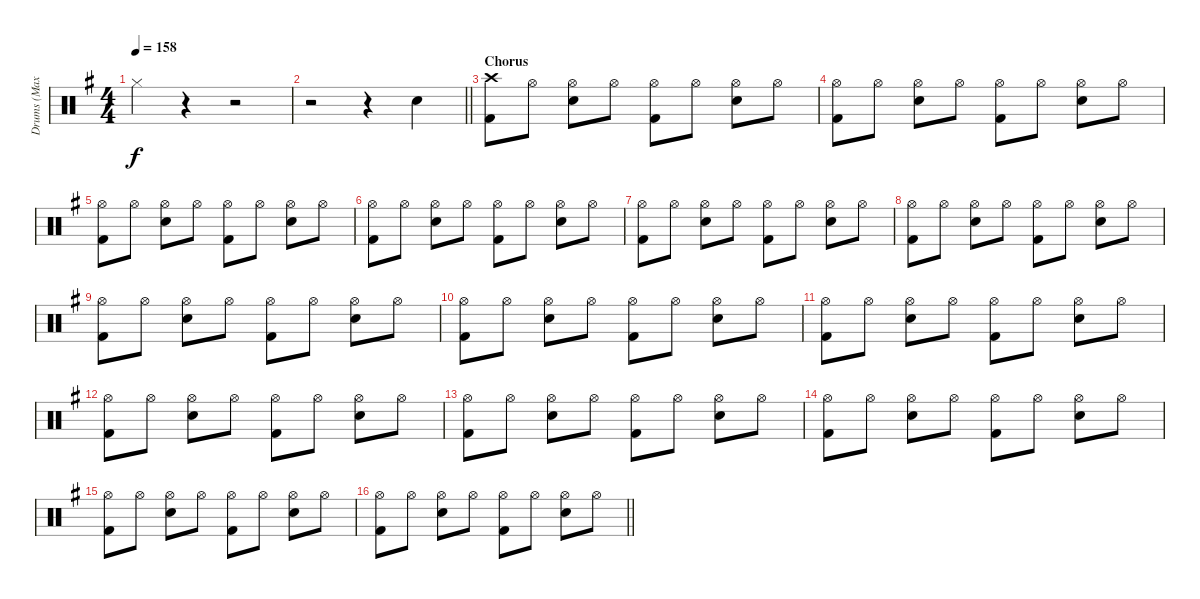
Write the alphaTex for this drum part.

\track ("Drums (Max)" "Drums (Max") {instrument percussion}
\staff {score}
\articulation defaults
\ts (4 4)
\tempo 158
\clef neutral
\ks g "Hi-Hat (closed)".4{dy f}
r.4 r.2 |
\barLineRight lightlight
r.2 r.4 "Snare (hit) 2".4 |
\section ("" "Chorus")
("Crash high (hit)" "Kick (hit) 2").8 "Hi-Hat (open)".8 ("Hi-Hat (open)" "Snare (hit) 2").8 "Hi-Hat (open)".8 ("Hi-Hat (open)" "Kick (hit) 2").8 "Hi-Hat (open)".8 ("Hi-Hat (open)" "Snare (hit) 2").8 "Hi-Hat (open)".8 |
("Hi-Hat (open)" "Kick (hit) 2").8 "Hi-Hat (open)".8 ("Hi-Hat (open)" "Snare (hit) 2").8 "Hi-Hat (open)".8 ("Hi-Hat (open)" "Kick (hit) 2").8 "Hi-Hat (open)".8 ("Hi-Hat (open)" "Snare (hit) 2").8 "Hi-Hat (open)".8 |
("Hi-Hat (open)" "Kick (hit) 2").8 "Hi-Hat (open)".8 ("Hi-Hat (open)" "Snare (hit) 2").8 "Hi-Hat (open)".8 ("Hi-Hat (open)" "Kick (hit) 2").8 "Hi-Hat (open)".8 ("Hi-Hat (open)" "Snare (hit) 2").8 "Hi-Hat (open)".8 |
("Hi-Hat (open)" "Kick (hit) 2").8 "Hi-Hat (open)".8 ("Hi-Hat (open)" "Snare (hit) 2").8 "Hi-Hat (open)".8 ("Hi-Hat (open)" "Kick (hit) 2").8 "Hi-Hat (open)".8 ("Hi-Hat (open)" "Snare (hit) 2").8 "Hi-Hat (open)".8 |
("Hi-Hat (open)" "Kick (hit) 2").8 "Hi-Hat (open)".8 ("Hi-Hat (open)" "Snare (hit) 2").8 "Hi-Hat (open)".8 ("Hi-Hat (open)" "Kick (hit) 2").8 "Hi-Hat (open)".8 ("Hi-Hat (open)" "Snare (hit) 2").8 "Hi-Hat (open)".8 |
("Hi-Hat (open)" "Kick (hit) 2").8 "Hi-Hat (open)".8 ("Hi-Hat (open)" "Snare (hit) 2").8 "Hi-Hat (open)".8 ("Hi-Hat (open)" "Kick (hit) 2").8 "Hi-Hat (open)".8 ("Hi-Hat (open)" "Snare (hit) 2").8 "Hi-Hat (open)".8 |
("Hi-Hat (open)" "Kick (hit) 2").8 "Hi-Hat (open)".8 ("Hi-Hat (open)" "Snare (hit) 2").8 "Hi-Hat (open)".8 ("Hi-Hat (open)" "Kick (hit) 2").8 "Hi-Hat (open)".8 ("Hi-Hat (open)" "Snare (hit) 2").8 "Hi-Hat (open)".8 |
("Hi-Hat (open)" "Kick (hit) 2").8 "Hi-Hat (open)".8 ("Hi-Hat (open)" "Snare (hit) 2").8 "Hi-Hat (open)".8 ("Hi-Hat (open)" "Kick (hit) 2").8 "Hi-Hat (open)".8 ("Hi-Hat (open)" "Snare (hit) 2").8 "Hi-Hat (open)".8 |
("Hi-Hat (open)" "Kick (hit) 2").8 "Hi-Hat (open)".8 ("Hi-Hat (open)" "Snare (hit) 2").8 "Hi-Hat (open)".8 ("Hi-Hat (open)" "Kick (hit) 2").8 "Hi-Hat (open)".8 ("Hi-Hat (open)" "Snare (hit) 2").8 "Hi-Hat (open)".8 |
("Hi-Hat (open)" "Kick (hit) 2").8 "Hi-Hat (open)".8 ("Hi-Hat (open)" "Snare (hit) 2").8 "Hi-Hat (open)".8 ("Hi-Hat (open)" "Kick (hit) 2").8 "Hi-Hat (open)".8 ("Hi-Hat (open)" "Snare (hit) 2").8 "Hi-Hat (open)".8 |
("Hi-Hat (open)" "Kick (hit) 2").8 "Hi-Hat (open)".8 ("Hi-Hat (open)" "Snare (hit) 2").8 "Hi-Hat (open)".8 ("Hi-Hat (open)" "Kick (hit) 2").8 "Hi-Hat (open)".8 ("Hi-Hat (open)" "Snare (hit) 2").8 "Hi-Hat (open)".8 |
("Hi-Hat (open)" "Kick (hit) 2").8 "Hi-Hat (open)".8 ("Hi-Hat (open)" "Snare (hit) 2").8 "Hi-Hat (open)".8 ("Hi-Hat (open)" "Kick (hit) 2").8 "Hi-Hat (open)".8 ("Hi-Hat (open)" "Snare (hit) 2").8 "Hi-Hat (open)".8 |
("Hi-Hat (open)" "Kick (hit) 2").8 "Hi-Hat (open)".8 ("Hi-Hat (open)" "Snare (hit) 2").8 "Hi-Hat (open)".8 ("Hi-Hat (open)" "Kick (hit) 2").8 "Hi-Hat (open)".8 ("Hi-Hat (open)" "Snare (hit) 2").8 "Hi-Hat (open)".8 |
\barLineRight lightlight
("Hi-Hat (open)" "Kick (hit) 2").8 "Hi-Hat (open)".8 ("Hi-Hat (open)" "Snare (hit) 2").8 "Hi-Hat (open)".8 ("Hi-Hat (open)" "Kick (hit) 2").8 "Hi-Hat (open)".8 ("Hi-Hat (open)" "Snare (hit) 2").8 "Hi-Hat (open)".8
